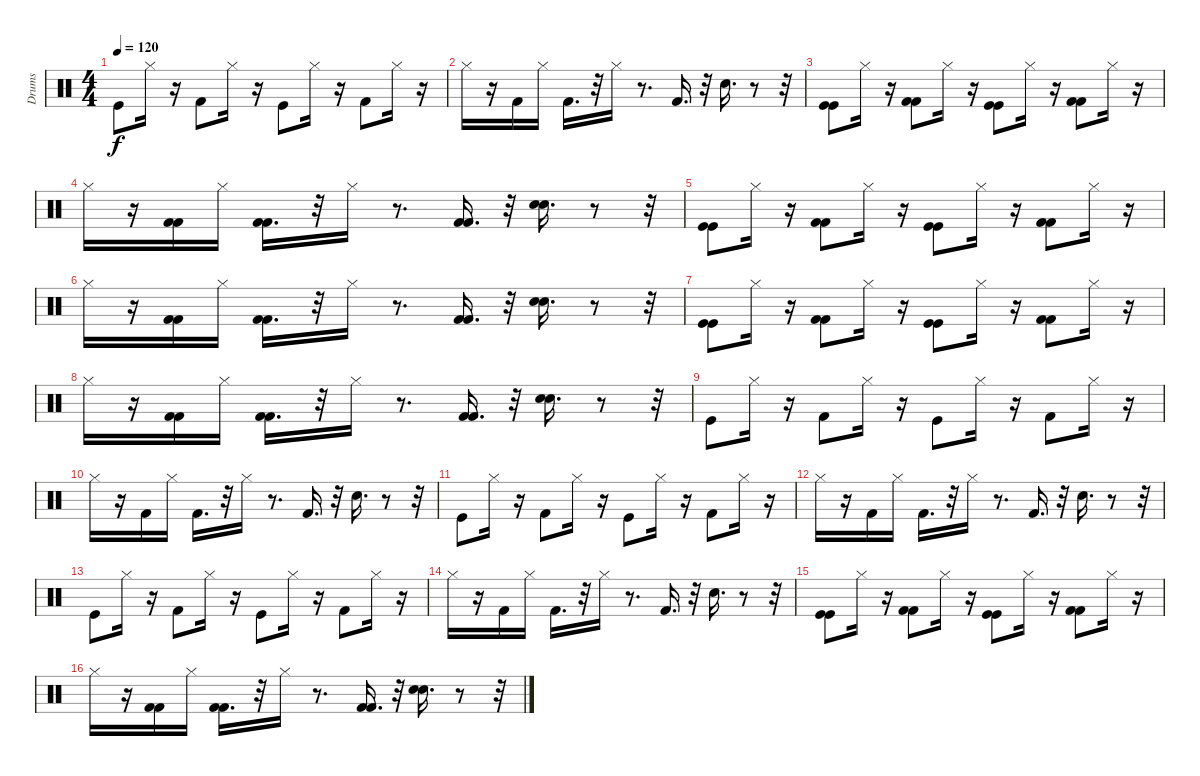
\track ("Drums" "Drums") {instrument percussion}
\staff {score}
\articulation defaults
\ts (4 4)
\tempo 120
\clef neutral
\ks c "Kick (hit)".8{dy f} "Hi-Hat (closed)".16
r.16 "Kick (hit) 2".8 "Hi-Hat (closed)".16 r.16 "Kick (hit)".8 "Hi-Hat (closed)".16 r.16 "Kick (hit) 2".8 "Hi-Hat (closed)".16 r.16 |
"Hi-Hat (closed)".16 r.16 "Kick (hit) 2".16 "Hi-Hat (closed)".16 "Kick (hit) 2".16{d} r.32 "Hi-Hat (closed)".16 r.8{d} "Kick (hit) 2".16{d} r.32 "Electric Snare (hit)".16{d} r.8 r.32 |
("Kick (hit)" "Kick (hit)").8 "Hi-Hat (closed)".16 r.16 ("Kick (hit) 2" "Kick (hit) 2").8 "Hi-Hat (closed)".16 r.16 ("Kick (hit)" "Kick (hit)").8 "Hi-Hat (closed)".16 r.16 ("Kick (hit) 2" "Kick (hit) 2").8 "Hi-Hat (closed)".16 r.16 |
"Hi-Hat (closed)".16 r.16 ("Kick (hit) 2" "Kick (hit) 2").16 "Hi-Hat (closed)".16 ("Kick (hit) 2" "Kick (hit) 2").16{d} r.32 "Hi-Hat (closed)".16 r.8{d} ("Kick (hit) 2" "Kick (hit) 2").16{d} r.32 ("Electric Snare (hit)" "Electric Snare (hit)").16{d} r.8 r.32 |
("Kick (hit)" "Kick (hit)").8 "Hi-Hat (closed)".16 r.16 ("Kick (hit) 2" "Kick (hit) 2").8 "Hi-Hat (closed)".16 r.16 ("Kick (hit)" "Kick (hit)").8 "Hi-Hat (closed)".16 r.16 ("Kick (hit) 2" "Kick (hit) 2").8 "Hi-Hat (closed)".16 r.16 |
"Hi-Hat (closed)".16 r.16 ("Kick (hit) 2" "Kick (hit) 2").16 "Hi-Hat (closed)".16 ("Kick (hit) 2" "Kick (hit) 2").16{d} r.32 "Hi-Hat (closed)".16 r.8{d} ("Kick (hit) 2" "Kick (hit) 2").16{d} r.32 ("Electric Snare (hit)" "Electric Snare (hit)").16{d} r.8 r.32 |
("Kick (hit)" "Kick (hit)").8 "Hi-Hat (closed)".16 r.16 ("Kick (hit) 2" "Kick (hit) 2").8 "Hi-Hat (closed)".16 r.16 ("Kick (hit)" "Kick (hit)").8 "Hi-Hat (closed)".16 r.16 ("Kick (hit) 2" "Kick (hit) 2").8 "Hi-Hat (closed)".16 r.16 |
"Hi-Hat (closed)".16 r.16 ("Kick (hit) 2" "Kick (hit) 2").16 "Hi-Hat (closed)".16 ("Kick (hit) 2" "Kick (hit) 2").16{d} r.32 "Hi-Hat (closed)".16 r.8{d} ("Kick (hit) 2" "Kick (hit) 2").16{d} r.32 ("Electric Snare (hit)" "Electric Snare (hit)").16{d} r.8 r.32 |
"Kick (hit)".8 "Hi-Hat (closed)".16 r.16 "Kick (hit) 2".8 "Hi-Hat (closed)".16 r.16 "Kick (hit)".8 "Hi-Hat (closed)".16 r.16 "Kick (hit) 2".8 "Hi-Hat (closed)".16 r.16 |
"Hi-Hat (closed)".16 r.16 "Kick (hit) 2".16 "Hi-Hat (closed)".16 "Kick (hit) 2".16{d} r.32 "Hi-Hat (closed)".16 r.8{d} "Kick (hit) 2".16{d} r.32 "Electric Snare (hit)".16{d} r.8 r.32 |
"Kick (hit)".8 "Hi-Hat (closed)".16 r.16 "Kick (hit) 2".8 "Hi-Hat (closed)".16 r.16 "Kick (hit)".8 "Hi-Hat (closed)".16 r.16 "Kick (hit) 2".8 "Hi-Hat (closed)".16 r.16 |
"Hi-Hat (closed)".16 r.16 "Kick (hit) 2".16 "Hi-Hat (closed)".16 "Kick (hit) 2".16{d} r.32 "Hi-Hat (closed)".16 r.8{d} "Kick (hit) 2".16{d} r.32 "Electric Snare (hit)".16{d} r.8 r.32 |
"Kick (hit)".8 "Hi-Hat (closed)".16 r.16 "Kick (hit) 2".8 "Hi-Hat (closed)".16 r.16 "Kick (hit)".8 "Hi-Hat (closed)".16 r.16 "Kick (hit) 2".8 "Hi-Hat (closed)".16 r.16 |
"Hi-Hat (closed)".16 r.16 "Kick (hit) 2".16 "Hi-Hat (closed)".16 "Kick (hit) 2".16{d} r.32 "Hi-Hat (closed)".16 r.8{d} "Kick (hit) 2".16{d} r.32 "Electric Snare (hit)".16{d} r.8 r.32 |
("Kick (hit)" "Kick (hit)").8 "Hi-Hat (closed)".16 r.16 ("Kick (hit) 2" "Kick (hit) 2").8 "Hi-Hat (closed)".16 r.16 ("Kick (hit)" "Kick (hit)").8 "Hi-Hat (closed)".16 r.16 ("Kick (hit) 2" "Kick (hit) 2").8 "Hi-Hat (closed)".16 r.16 |
"Hi-Hat (closed)".16 r.16 ("Kick (hit) 2" "Kick (hit) 2").16 "Hi-Hat (closed)".16 ("Kick (hit) 2" "Kick (hit) 2").16{d} r.32 "Hi-Hat (closed)".16 r.8{d} ("Kick (hit) 2" "Kick (hit) 2").16{d} r.32 ("Electric Snare (hit)" "Electric Snare (hit)").16{d} r.8 r.32
